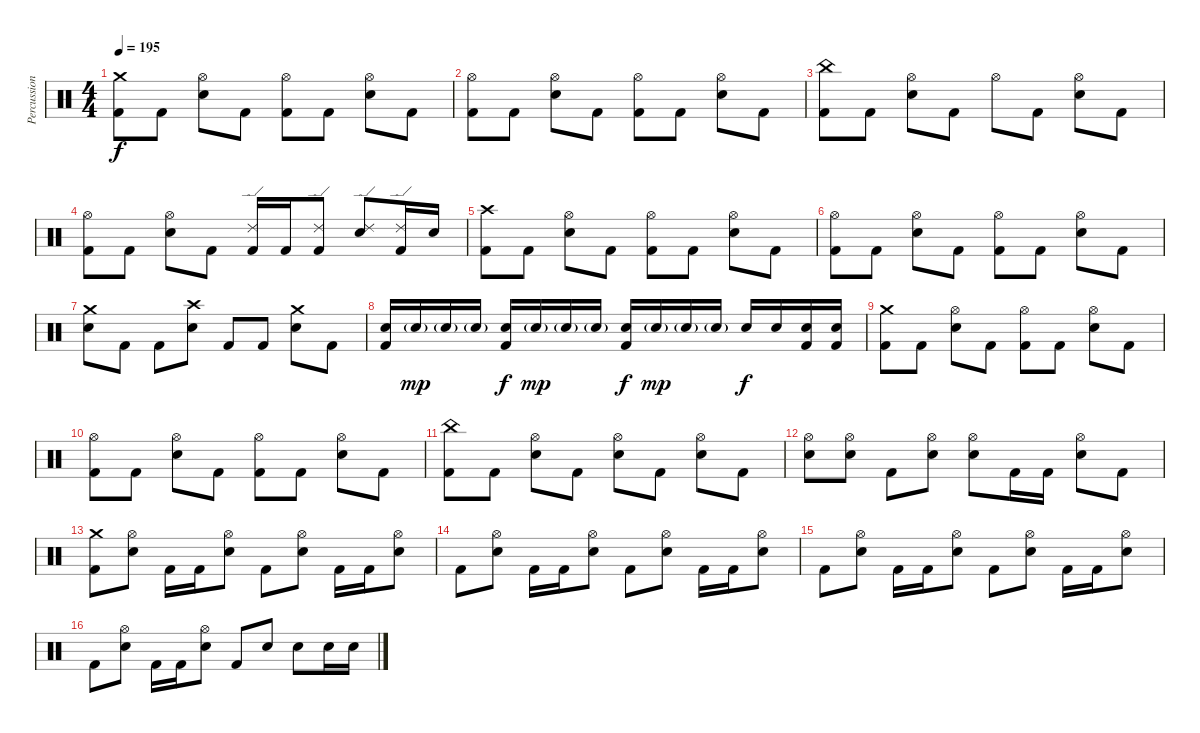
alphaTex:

\track ("Percussion" "Percussion") {instrument percussion}
\staff {score}
\articulation defaults
\ts (4 4)
\tempo 195
\clef neutral
\ks c
("Crash medium (hit)" "Kick (hit) 2").8{dy f} "Kick (hit) 2".8 ("Hi-Hat (open)" "Electric Snare (hit)").8 "Kick (hit) 2".8 ("Hi-Hat (open)" "Kick (hit) 2").8 "Kick (hit) 2".8 ("Hi-Hat (open)" "Electric Snare (hit)").8 "Kick (hit) 2".8 |
("Hi-Hat (open)" "Kick (hit) 2").8 "Kick (hit) 2".8 ("Hi-Hat (open)" "Electric Snare (hit)").8 "Kick (hit) 2".8 ("Hi-Hat (open)" "Kick (hit) 2").8 "Kick (hit) 2".8 ("Hi-Hat (open)" "Electric Snare (hit)").8 "Kick (hit) 2".8 |
("China (hit)" "Kick (hit) 2").8 "Kick (hit) 2".8 ("Hi-Hat (open)" "Electric Snare (hit)").8 "Kick (hit) 2".8 "Hi-Hat (open)".8 "Kick (hit) 2".8 ("Hi-Hat (open)" "Electric Snare (hit)").8 "Kick (hit) 2".8 |
("Hi-Hat (open)" "Kick (hit) 2").8 "Kick (hit) 2".8 ("Hi-Hat (open)" "Electric Snare (hit)").8 "Kick (hit) 2".8 ("Ride (edge) 2" "Kick (hit) 2").16 "Kick (hit) 2".16 ("Ride (edge) 2" "Kick (hit) 2").8 ("Ride (edge) 2" "Electric Snare (hit)").8 ("Ride (edge) 2" "Kick (hit) 2").16 "Electric Snare (hit)".16 |
("Crash high (hit)" "Kick (hit) 2").8 "Kick (hit) 2".8 ("Hi-Hat (open)" "Electric Snare (hit)").8 "Kick (hit) 2".8 ("Hi-Hat (open)" "Kick (hit) 2").8 "Kick (hit) 2".8 ("Hi-Hat (open)" "Electric Snare (hit)").8 "Kick (hit) 2".8 |
("Hi-Hat (open)" "Kick (hit) 2").8 "Kick (hit) 2".8 ("Hi-Hat (open)" "Electric Snare (hit)").8 "Kick (hit) 2".8 ("Hi-Hat (open)" "Kick (hit) 2").8 "Kick (hit) 2".8 ("Hi-Hat (open)" "Electric Snare (hit)").8 "Kick (hit) 2".8 |
("Crash medium (hit)" "Electric Snare (hit)").8 "Kick (hit) 2".8 "Kick (hit) 2".8 ("Crash high (hit)" "Electric Snare (hit)").8 "Kick (hit) 2".8 "Kick (hit) 2".8 ("Crash medium (hit)" "Electric Snare (hit)").8 "Kick (hit) 2".8 |
("Electric Snare (hit)" "Kick (hit) 2").16 "Electric Snare (hit)"{g}.16{dy mp} "Electric Snare (hit)"{g}.16 "Electric Snare (hit)"{g}.16 ("Electric Snare (hit)" "Kick (hit) 2").16{dy f} "Electric Snare (hit)"{g}.16{dy mp} "Electric Snare (hit)"{g}.16 "Electric Snare (hit)"{g}.16 ("Electric Snare (hit)" "Kick (hit) 2").16{dy f} "Electric Snare (hit)"{g}.16{dy mp} "Electric Snare (hit)"{g}.16 "Electric Snare (hit)"{g}.16 "Electric Snare (hit)".16{dy f} "Electric Snare (hit)".16 ("Electric Snare (hit)" "Kick (hit) 2").16 ("Electric Snare (hit)" "Kick (hit) 2").16 |
("Crash medium (hit)" "Kick (hit) 2").8 "Kick (hit) 2".8 ("Hi-Hat (open)" "Electric Snare (hit)").8 "Kick (hit) 2".8 ("Hi-Hat (open)" "Kick (hit) 2").8 "Kick (hit) 2".8 ("Hi-Hat (open)" "Electric Snare (hit)").8 "Kick (hit) 2".8 |
("Hi-Hat (open)" "Kick (hit) 2").8 "Kick (hit) 2".8 ("Hi-Hat (open)" "Electric Snare (hit)").8 "Kick (hit) 2".8 ("Hi-Hat (open)" "Kick (hit) 2").8 "Kick (hit) 2".8 ("Hi-Hat (open)" "Electric Snare (hit)").8 "Kick (hit) 2".8 |
("China (hit)" "Kick (hit) 2").8 "Kick (hit) 2".8 ("Hi-Hat (open)" "Electric Snare (hit)").8 "Kick (hit) 2".8 ("Hi-Hat (open)" "Electric Snare (hit)").8 "Kick (hit) 2".8 ("Hi-Hat (open)" "Electric Snare (hit)").8 "Kick (hit) 2".8 |
("Hi-Hat (open)" "Electric Snare (hit)").8 ("Hi-Hat (open)" "Electric Snare (hit)").8 "Kick (hit) 2".8 ("Hi-Hat (open)" "Electric Snare (hit)").8 ("Hi-Hat (open)" "Electric Snare (hit)").8 "Kick (hit) 2".16 "Kick (hit) 2".16 ("Hi-Hat (open)" "Electric Snare (hit)").8 "Kick (hit) 2".8 |
("Crash medium (hit)" "Kick (hit) 2").8 ("Hi-Hat (open)" "Electric Snare (hit)").8 "Kick (hit) 2".16 "Kick (hit) 2".16 ("Hi-Hat (open)" "Electric Snare (hit)").8 "Kick (hit) 2".8 ("Hi-Hat (open)" "Electric Snare (hit)").8 "Kick (hit) 2".16 "Kick (hit) 2".16 ("Hi-Hat (open)" "Electric Snare (hit)").8 |
"Kick (hit) 2".8 ("Hi-Hat (open)" "Electric Snare (hit)").8 "Kick (hit) 2".16 "Kick (hit) 2".16 ("Hi-Hat (open)" "Electric Snare (hit)").8 "Kick (hit) 2".8 ("Hi-Hat (open)" "Electric Snare (hit)").8 "Kick (hit) 2".16 "Kick (hit) 2".16 ("Hi-Hat (open)" "Electric Snare (hit)").8 |
"Kick (hit) 2".8 ("Hi-Hat (open)" "Electric Snare (hit)").8 "Kick (hit) 2".16 "Kick (hit) 2".16 ("Hi-Hat (open)" "Electric Snare (hit)").8 "Kick (hit) 2".8 ("Hi-Hat (open)" "Electric Snare (hit)").8 "Kick (hit) 2".16 "Kick (hit) 2".16 ("Hi-Hat (open)" "Electric Snare (hit)").8 |
"Kick (hit) 2".8 ("Hi-Hat (open)" "Electric Snare (hit)").8 "Kick (hit) 2".16 "Kick (hit) 2".16 ("Hi-Hat (open)" "Electric Snare (hit)").8 "Kick (hit) 2".8 "Electric Snare (hit)".8 "Electric Snare (hit)".8 "Electric Snare (hit)".16 "Electric Snare (hit)".16
